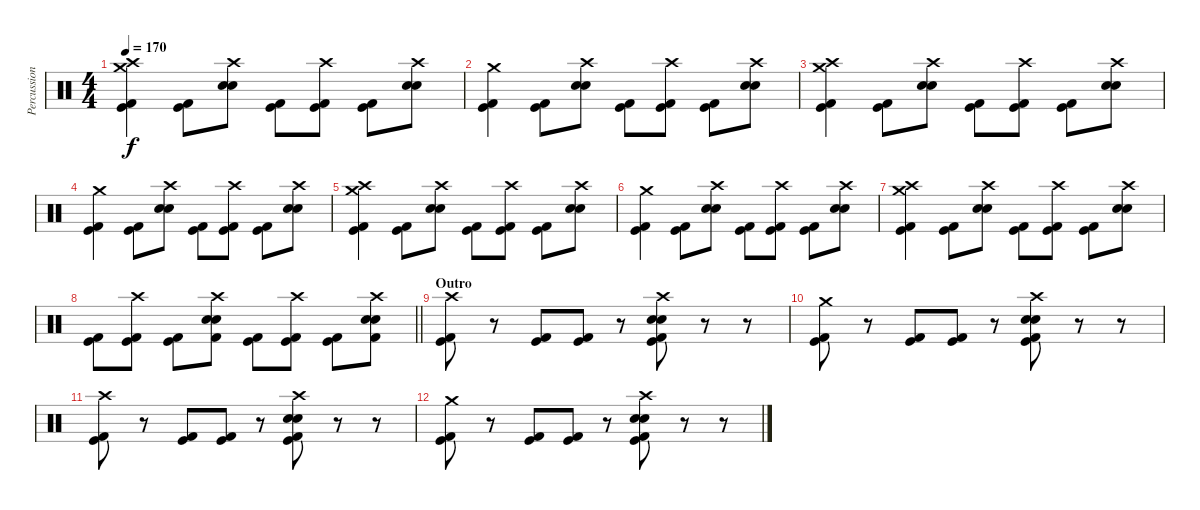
\track ("Percussion" "Percussion") {instrument percussion}
\staff {score}
\articulation defaults
\ts (4 4)
\tempo 170
\clef neutral
\ks c
("Crash medium (hit)" "Crash high (hit)" "Kick (hit)" "Kick (hit) 2").4{dy f} ("Kick (hit)" "Kick (hit) 2").8 ("Crash high (hit)" "Snare (hit) 2" "Electric Snare (hit)").8 ("Kick (hit)" "Kick (hit) 2").8 ("Crash high (hit)" "Kick (hit)" "Kick (hit) 2").8 ("Kick (hit)" "Kick (hit) 2").8 ("Crash high (hit)" "Snare (hit) 2" "Electric Snare (hit)").8 |
("Crash medium (hit)" "Kick (hit)" "Kick (hit) 2").4 ("Kick (hit)" "Kick (hit) 2").8 ("Crash high (hit)" "Snare (hit) 2" "Electric Snare (hit)").8 ("Kick (hit)" "Kick (hit) 2").8 ("Crash high (hit)" "Kick (hit)" "Kick (hit) 2").8 ("Kick (hit)" "Kick (hit) 2").8 ("Crash high (hit)" "Snare (hit) 2" "Electric Snare (hit)").8 |
("Crash medium (hit)" "Crash high (hit)" "Kick (hit)" "Kick (hit) 2").4 ("Kick (hit)" "Kick (hit) 2").8 ("Crash high (hit)" "Snare (hit) 2" "Electric Snare (hit)").8 ("Kick (hit)" "Kick (hit) 2").8 ("Crash high (hit)" "Kick (hit)" "Kick (hit) 2").8 ("Kick (hit)" "Kick (hit) 2").8 ("Crash high (hit)" "Snare (hit) 2" "Electric Snare (hit)").8 |
("Crash medium (hit)" "Kick (hit)" "Kick (hit) 2").4 ("Kick (hit)" "Kick (hit) 2").8 ("Crash high (hit)" "Snare (hit) 2" "Electric Snare (hit)").8 ("Kick (hit)" "Kick (hit) 2").8 ("Crash high (hit)" "Kick (hit)" "Kick (hit) 2").8 ("Kick (hit)" "Kick (hit) 2").8 ("Crash high (hit)" "Snare (hit) 2" "Electric Snare (hit)").8 |
("Crash medium (hit)" "Crash high (hit)" "Kick (hit)" "Kick (hit) 2").4 ("Kick (hit)" "Kick (hit) 2").8 ("Crash high (hit)" "Snare (hit) 2" "Electric Snare (hit)").8 ("Kick (hit)" "Kick (hit) 2").8 ("Crash high (hit)" "Kick (hit)" "Kick (hit) 2").8 ("Kick (hit)" "Kick (hit) 2").8 ("Crash high (hit)" "Snare (hit) 2" "Electric Snare (hit)").8 |
("Crash medium (hit)" "Kick (hit)" "Kick (hit) 2").4 ("Kick (hit)" "Kick (hit) 2").8 ("Crash high (hit)" "Snare (hit) 2" "Electric Snare (hit)").8 ("Kick (hit)" "Kick (hit) 2").8 ("Crash high (hit)" "Kick (hit)" "Kick (hit) 2").8 ("Kick (hit)" "Kick (hit) 2").8 ("Crash high (hit)" "Snare (hit) 2" "Electric Snare (hit)").8 |
("Crash medium (hit)" "Crash high (hit)" "Kick (hit)" "Kick (hit) 2").4 ("Kick (hit)" "Kick (hit) 2").8 ("Crash high (hit)" "Snare (hit) 2" "Electric Snare (hit)").8 ("Kick (hit)" "Kick (hit) 2").8 ("Crash high (hit)" "Kick (hit)" "Kick (hit) 2").8 ("Kick (hit)" "Kick (hit) 2").8 ("Crash high (hit)" "Snare (hit) 2" "Electric Snare (hit)").8 |
\barLineRight lightlight
("Kick (hit)" "Kick (hit) 2").8 ("Crash high (hit)" "Kick (hit)" "Kick (hit) 2").8 ("Kick (hit)" "Kick (hit) 2").8 ("Crash high (hit)" "Electric Snare (hit)" "Snare (hit) 2" "Kick (hit) 2").8 ("Kick (hit)" "Kick (hit) 2").8 ("Crash high (hit)" "Kick (hit)" "Kick (hit) 2").8 ("Kick (hit)" "Kick (hit) 2").8 ("Crash high (hit)" "Electric Snare (hit)" "Snare (hit) 2" "Kick (hit) 2").8 |
\section ("" "Outro")
("Crash high (hit)" "Kick (hit)" "Kick (hit) 2").8 r.8 ("Kick (hit)" "Kick (hit) 2").8 ("Kick (hit)" "Kick (hit) 2").8 r.8 ("Crash high (hit)" "Snare (hit) 2" "Electric Snare (hit)" "Kick (hit)" "Kick (hit) 2").8 r.8 r.8 |
("Crash medium (hit)" "Kick (hit)" "Kick (hit) 2").8 r.8 ("Kick (hit)" "Kick (hit) 2").8 ("Kick (hit)" "Kick (hit) 2").8 r.8 ("Crash high (hit)" "Snare (hit) 2" "Electric Snare (hit)" "Kick (hit)" "Kick (hit) 2").8 r.8 r.8 |
("Crash high (hit)" "Kick (hit)" "Kick (hit) 2").8 r.8 ("Kick (hit)" "Kick (hit) 2").8 ("Kick (hit)" "Kick (hit) 2").8 r.8 ("Crash high (hit)" "Snare (hit) 2" "Electric Snare (hit)" "Kick (hit)" "Kick (hit) 2").8 r.8 r.8 |
("Crash medium (hit)" "Kick (hit)" "Kick (hit) 2").8 r.8 ("Kick (hit)" "Kick (hit) 2").8 ("Kick (hit)" "Kick (hit) 2").8 r.8 ("Crash high (hit)" "Snare (hit) 2" "Electric Snare (hit)" "Kick (hit)" "Kick (hit) 2").8 r.8 r.8
